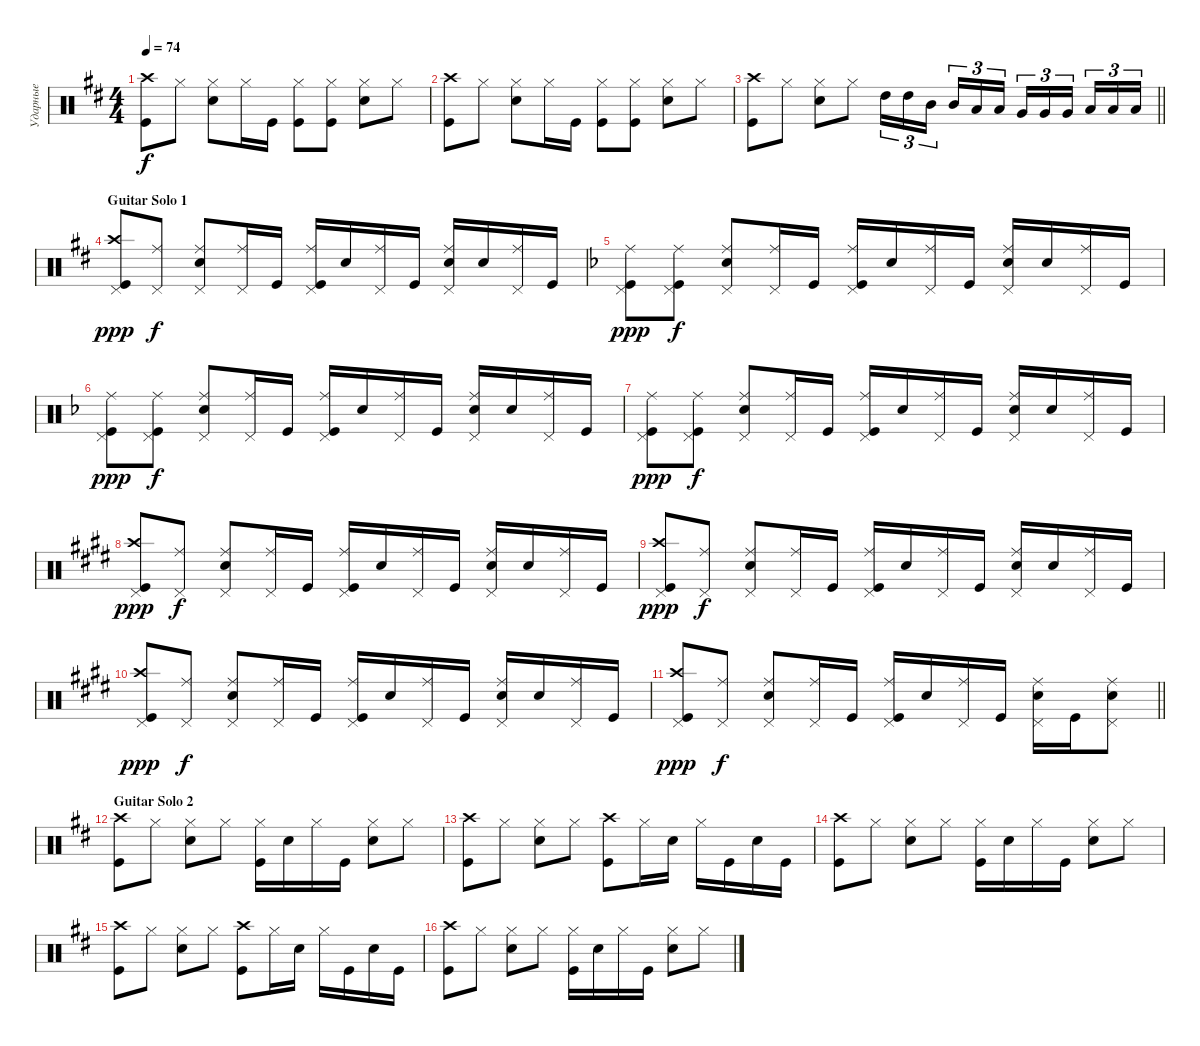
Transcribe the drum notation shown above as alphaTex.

\track ("Ударные" "Ударные") {instrument percussion}
\staff {score}
\articulation defaults
\ts (4 4)
\tempo 74
\clef neutral
\ks bminor
("Kick (hit)" "Crash high (hit)").8{dy f} "Hi-Hat (closed)".8 ("Hi-Hat (closed)" "Snare (hit) 2").8 "Hi-Hat (closed)".16 "Kick (hit)".16 ("Kick (hit)" "Hi-Hat (closed)").8 ("Kick (hit)" "Hi-Hat (closed)").8 ("Snare (hit) 2" "Hi-Hat (closed)").8 "Hi-Hat (closed)".8 |
("Kick (hit)" "Crash high (hit)").8 "Hi-Hat (closed)".8 ("Hi-Hat (closed)" "Snare (hit) 2").8 "Hi-Hat (closed)".16 "Kick (hit)".16 ("Kick (hit)" "Hi-Hat (closed)").8 ("Kick (hit)" "Hi-Hat (closed)").8 ("Snare (hit) 2" "Hi-Hat (closed)").8 "Hi-Hat (closed)".8 |
\barLineRight lightlight
("Kick (hit)" "Crash high (hit)").8 "Hi-Hat (closed)".8 ("Hi-Hat (closed)" "Snare (hit) 2").8 "Hi-Hat (closed)".8 "High Tom (hit)".16{tu (3 2)} "High Tom (hit)".16{tu (3 2)} "Mid Tom (hit)".16{tu (3 2) beam splitsecondary} "Mid Tom (hit)".16{tu (3 2)} "Low Tom (hit)".16{tu (3 2)} "Low Tom (hit)".16{tu (3 2)} "Very Low Tom (hit)".16{tu (3 2)} "Very Low Tom (hit)".16{tu (3 2)} "Very Low Tom (hit)".16{tu (3 2) beam splitsecondary} "Low Floor Tom (hit)".16{tu (3 2)} "Low Floor Tom (hit)".16{tu (3 2)} "Low Floor Tom (hit)".16{tu (3 2)} |
\section ("" "Guitar Solo 1")
("Kick (hit)" "Crash high (hit)" "Pedal Hi-Hat (hit)").8{dy ppp} ("Pedal Hi-Hat (hit)" "Ride (middle)").8{dy f} ("Pedal Hi-Hat (hit)" "Snare (hit) 2" "Ride (middle)").8 ("Pedal Hi-Hat (hit)" "Ride (middle)").16 "Kick (hit)".16 ("Pedal Hi-Hat (hit)" "Kick (hit)" "Ride (middle)").16 "Snare (hit) 2".16 ("Pedal Hi-Hat (hit)" "Ride (middle)").16 "Kick (hit)".16 ("Pedal Hi-Hat (hit)" "Snare (hit) 2" "Ride (middle)").16 "Snare (hit) 2".16 ("Pedal Hi-Hat (hit)" "Ride (middle)").16 "Kick (hit)".16 |
\ks dminor
("Kick (hit)" "Ride (middle)" "Pedal Hi-Hat (hit)").8{dy ppp} ("Pedal Hi-Hat (hit)" "Ride (middle)" "Kick (hit)").8{dy f} ("Pedal Hi-Hat (hit)" "Snare (hit) 2" "Ride (middle)").8 ("Pedal Hi-Hat (hit)" "Ride (middle)").16 "Kick (hit)".16 ("Pedal Hi-Hat (hit)" "Kick (hit)" "Ride (middle)").16 "Snare (hit) 2".16 ("Pedal Hi-Hat (hit)" "Ride (middle)").16 "Kick (hit)".16 ("Pedal Hi-Hat (hit)" "Snare (hit) 2" "Ride (middle)").16 "Snare (hit) 2".16 ("Pedal Hi-Hat (hit)" "Ride (middle)").16 "Kick (hit)".16 |
("Kick (hit)" "Ride (middle)" "Pedal Hi-Hat (hit)").8{dy ppp} ("Pedal Hi-Hat (hit)" "Ride (middle)" "Kick (hit)").8{dy f} ("Pedal Hi-Hat (hit)" "Snare (hit) 2" "Ride (middle)").8 ("Pedal Hi-Hat (hit)" "Ride (middle)").16 "Kick (hit)".16 ("Pedal Hi-Hat (hit)" "Kick (hit)" "Ride (middle)").16 "Snare (hit) 2".16 ("Pedal Hi-Hat (hit)" "Ride (middle)").16 "Kick (hit)".16 ("Pedal Hi-Hat (hit)" "Snare (hit) 2" "Ride (middle)").16 "Snare (hit) 2".16 ("Pedal Hi-Hat (hit)" "Ride (middle)").16 "Kick (hit)".16 |
("Kick (hit)" "Ride (middle)" "Pedal Hi-Hat (hit)").8{dy ppp} ("Pedal Hi-Hat (hit)" "Ride (middle)" "Kick (hit)").8{dy f} ("Pedal Hi-Hat (hit)" "Snare (hit) 2" "Ride (middle)").8 ("Pedal Hi-Hat (hit)" "Ride (middle)").16 "Kick (hit)".16 ("Pedal Hi-Hat (hit)" "Kick (hit)" "Ride (middle)").16 "Snare (hit) 2".16 ("Pedal Hi-Hat (hit)" "Ride (middle)").16 "Kick (hit)".16 ("Pedal Hi-Hat (hit)" "Snare (hit) 2" "Ride (middle)").16 "Snare (hit) 2".16 ("Pedal Hi-Hat (hit)" "Ride (middle)").16 "Kick (hit)".16 |
\ks c#minor
("Kick (hit)" "Crash high (hit)" "Pedal Hi-Hat (hit)").8{dy ppp} ("Pedal Hi-Hat (hit)" "Ride (middle)").8{dy f} ("Pedal Hi-Hat (hit)" "Snare (hit) 2" "Ride (middle)").8 ("Pedal Hi-Hat (hit)" "Ride (middle)").16 "Kick (hit)".16 ("Pedal Hi-Hat (hit)" "Kick (hit)" "Ride (middle)").16 "Snare (hit) 2".16 ("Pedal Hi-Hat (hit)" "Ride (middle)").16 "Kick (hit)".16 ("Pedal Hi-Hat (hit)" "Snare (hit) 2" "Ride (middle)").16 "Snare (hit) 2".16 ("Pedal Hi-Hat (hit)" "Ride (middle)").16 "Kick (hit)".16 |
("Kick (hit)" "Crash high (hit)" "Pedal Hi-Hat (hit)").8{dy ppp} ("Pedal Hi-Hat (hit)" "Ride (middle)").8{dy f} ("Pedal Hi-Hat (hit)" "Snare (hit) 2" "Ride (middle)").8 ("Pedal Hi-Hat (hit)" "Ride (middle)").16 "Kick (hit)".16 ("Pedal Hi-Hat (hit)" "Kick (hit)" "Ride (middle)").16 "Snare (hit) 2".16 ("Pedal Hi-Hat (hit)" "Ride (middle)").16 "Kick (hit)".16 ("Pedal Hi-Hat (hit)" "Snare (hit) 2" "Ride (middle)").16 "Snare (hit) 2".16 ("Pedal Hi-Hat (hit)" "Ride (middle)").16 "Kick (hit)".16 |
("Kick (hit)" "Crash high (hit)" "Pedal Hi-Hat (hit)").8{dy ppp} ("Pedal Hi-Hat (hit)" "Ride (middle)").8{dy f} ("Pedal Hi-Hat (hit)" "Snare (hit) 2" "Ride (middle)").8 ("Pedal Hi-Hat (hit)" "Ride (middle)").16 "Kick (hit)".16 ("Pedal Hi-Hat (hit)" "Kick (hit)" "Ride (middle)").16 "Snare (hit) 2".16 ("Pedal Hi-Hat (hit)" "Ride (middle)").16 "Kick (hit)".16 ("Pedal Hi-Hat (hit)" "Snare (hit) 2" "Ride (middle)").16 "Snare (hit) 2".16 ("Pedal Hi-Hat (hit)" "Ride (middle)").16 "Kick (hit)".16 |
\barLineRight lightlight
("Kick (hit)" "Crash high (hit)" "Pedal Hi-Hat (hit)").8{dy ppp} ("Pedal Hi-Hat (hit)" "Ride (middle)").8{dy f} ("Pedal Hi-Hat (hit)" "Snare (hit) 2" "Ride (middle)").8 ("Pedal Hi-Hat (hit)" "Ride (middle)").16 "Kick (hit)".16 ("Pedal Hi-Hat (hit)" "Kick (hit)" "Ride (middle)").16 "Snare (hit) 2".16 ("Pedal Hi-Hat (hit)" "Ride (middle)").16 "Kick (hit)".16 ("Pedal Hi-Hat (hit)" "Snare (hit) 2" "Ride (middle)").16 "Kick (hit)".16 ("Pedal Hi-Hat (hit)" "Ride (middle)" "Snare (hit) 2").8 |
\section ("" "Guitar Solo 2")
\ks bminor
("Kick (hit)" "Crash high (hit)").8 "Hi-Hat (closed)".8 ("Snare (hit) 2" "Hi-Hat (closed)").8 "Hi-Hat (closed)".8 ("Kick (hit)" "Hi-Hat (closed)").16 "Snare (hit) 2".16 "Hi-Hat (closed)".16 "Kick (hit)".16 ("Snare (hit) 2" "Hi-Hat (closed)").8 "Hi-Hat (closed)".8 |
("Kick (hit)" "Crash high (hit)").8 "Hi-Hat (closed)".8 ("Snare (hit) 2" "Hi-Hat (closed)").8 "Hi-Hat (closed)".8 ("Kick (hit)" "Crash high (hit)").8 "Hi-Hat (closed)".16 "Snare (hit) 2".16 "Hi-Hat (closed)".16 "Kick (hit)".16 "Snare (hit) 2".16 "Kick (hit)".16 |
("Kick (hit)" "Crash high (hit)").8 "Hi-Hat (closed)".8 ("Snare (hit) 2" "Hi-Hat (closed)").8 "Hi-Hat (closed)".8 ("Kick (hit)" "Hi-Hat (closed)").16 "Snare (hit) 2".16 "Hi-Hat (closed)".16 "Kick (hit)".16 ("Snare (hit) 2" "Hi-Hat (closed)").8 "Hi-Hat (closed)".8 |
("Kick (hit)" "Crash high (hit)").8 "Hi-Hat (closed)".8 ("Snare (hit) 2" "Hi-Hat (closed)").8 "Hi-Hat (closed)".8 ("Kick (hit)" "Crash high (hit)").8 "Hi-Hat (closed)".16 "Snare (hit) 2".16 "Hi-Hat (closed)".16 "Kick (hit)".16 "Snare (hit) 2".16 "Kick (hit)".16 |
("Kick (hit)" "Crash high (hit)").8 "Hi-Hat (closed)".8 ("Snare (hit) 2" "Hi-Hat (closed)").8 "Hi-Hat (closed)".8 ("Kick (hit)" "Hi-Hat (closed)").16 "Snare (hit) 2".16 "Hi-Hat (closed)".16 "Kick (hit)".16 ("Snare (hit) 2" "Hi-Hat (closed)").8 "Hi-Hat (closed)".8
